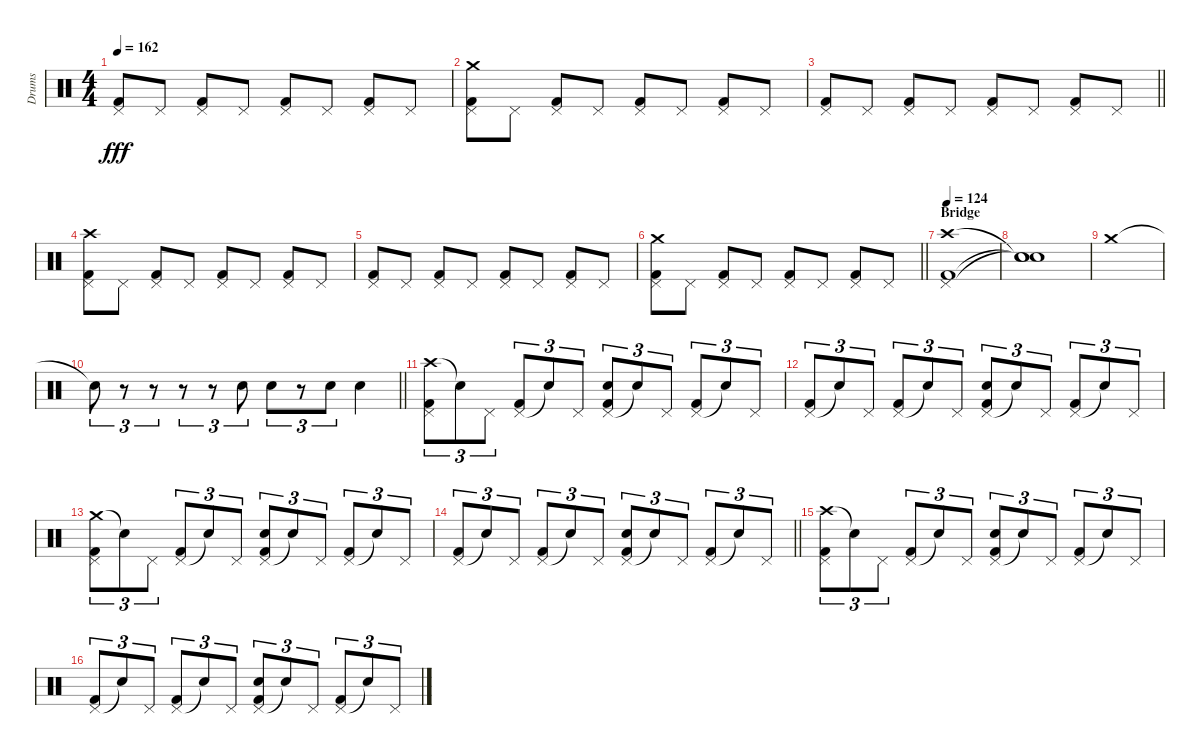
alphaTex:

\track ("Drums" "Drums") {instrument percussion}
\staff {score}
\articulation defaults
\ts (4 4)
\tempo 162
\clef neutral
\ks c
("Pedal Hi-Hat (hit)" "Kick (hit) 2").8{dy fff} "Pedal Hi-Hat (hit)".8 ("Pedal Hi-Hat (hit)" "Kick (hit) 2").8 "Pedal Hi-Hat (hit)".8 ("Pedal Hi-Hat (hit)" "Kick (hit) 2").8 "Pedal Hi-Hat (hit)".8 ("Pedal Hi-Hat (hit)" "Kick (hit) 2").8 "Pedal Hi-Hat (hit)".8 |
("Crash medium (hit)" "Pedal Hi-Hat (hit)" "Kick (hit) 2").8 "Pedal Hi-Hat (hit)".8 ("Pedal Hi-Hat (hit)" "Kick (hit) 2").8 "Pedal Hi-Hat (hit)".8 ("Pedal Hi-Hat (hit)" "Kick (hit) 2").8 "Pedal Hi-Hat (hit)".8 ("Pedal Hi-Hat (hit)" "Kick (hit) 2").8 "Pedal Hi-Hat (hit)".8 |
\barLineRight lightlight
("Pedal Hi-Hat (hit)" "Kick (hit) 2").8 "Pedal Hi-Hat (hit)".8 ("Pedal Hi-Hat (hit)" "Kick (hit) 2").8 "Pedal Hi-Hat (hit)".8 ("Pedal Hi-Hat (hit)" "Kick (hit) 2").8 "Pedal Hi-Hat (hit)".8 ("Pedal Hi-Hat (hit)" "Kick (hit) 2").8 "Pedal Hi-Hat (hit)".8 |
("Crash high (hit)" "Pedal Hi-Hat (hit)" "Kick (hit) 2").8 "Pedal Hi-Hat (hit)".8 ("Pedal Hi-Hat (hit)" "Kick (hit) 2").8 "Pedal Hi-Hat (hit)".8 ("Pedal Hi-Hat (hit)" "Kick (hit) 2").8 "Pedal Hi-Hat (hit)".8 ("Pedal Hi-Hat (hit)" "Kick (hit) 2").8 "Pedal Hi-Hat (hit)".8 |
("Pedal Hi-Hat (hit)" "Kick (hit) 2").8 "Pedal Hi-Hat (hit)".8 ("Pedal Hi-Hat (hit)" "Kick (hit) 2").8 "Pedal Hi-Hat (hit)".8 ("Pedal Hi-Hat (hit)" "Kick (hit) 2").8 "Pedal Hi-Hat (hit)".8 ("Pedal Hi-Hat (hit)" "Kick (hit) 2").8 "Pedal Hi-Hat (hit)".8 |
\barLineRight lightlight
("Crash medium (hit)" "Pedal Hi-Hat (hit)" "Kick (hit) 2").8 "Pedal Hi-Hat (hit)".8 ("Pedal Hi-Hat (hit)" "Kick (hit) 2").8 "Pedal Hi-Hat (hit)".8 ("Pedal Hi-Hat (hit)" "Kick (hit) 2").8 "Pedal Hi-Hat (hit)".8 ("Pedal Hi-Hat (hit)" "Kick (hit) 2").8 "Pedal Hi-Hat (hit)".8 |
\section ("" "Bridge")
\tempo 124
("Crash high (hit)" "Pedal Hi-Hat (hit)" "Kick (hit) 2").1{volume 2} |
("Snare (hit)"{t} "Snare (hit)"{t} "Snare (hit)"{t}).1 |
"Crash medium (hit)".1 |
\barLineRight lightlight "Snare (hit)"{t}.8{tu (3 2)}
r.8{tu (3 2)} r.8{tu (3 2)} r.8{tu (3 2)} r.8{tu (3 2)} "Snare (hit) 2".8{tu (3 2) volume 14} "Snare (hit) 2".8{tu (3 2)} r.8{tu (3 2)} "Snare (hit) 2".8{tu (3 2)} "Snare (hit) 2".4 |
("Crash high (hit)" "Pedal Hi-Hat (hit)" "Kick (hit) 2").8{tu (3 2)} "Snare (hit)"{t}.8{tu (3 2)} "Pedal Hi-Hat (hit)".8{tu (3 2)} ("Pedal Hi-Hat (hit)" "Kick (hit) 2").8{tu (3 2)} "Snare (hit)"{t}.8{tu (3 2)} "Pedal Hi-Hat (hit)".8{tu (3 2)} ("Pedal Hi-Hat (hit)" "Snare (hit) 2" "Kick (hit) 2").8{tu (3 2)} "Snare (hit)"{t}.8{tu (3 2)} "Pedal Hi-Hat (hit)".8{tu (3 2)} ("Pedal Hi-Hat (hit)" "Kick (hit) 2").8{tu (3 2)} "Snare (hit)"{t}.8{tu (3 2)} "Pedal Hi-Hat (hit)".8{tu (3 2)} |
("Pedal Hi-Hat (hit)" "Kick (hit) 2").8{tu (3 2)} "Snare (hit)"{t}.8{tu (3 2)} "Pedal Hi-Hat (hit)".8{tu (3 2)} ("Pedal Hi-Hat (hit)" "Kick (hit) 2").8{tu (3 2)} "Snare (hit)"{t}.8{tu (3 2)} "Pedal Hi-Hat (hit)".8{tu (3 2)} ("Pedal Hi-Hat (hit)" "Snare (hit) 2" "Kick (hit) 2").8{tu (3 2)} "Snare (hit)"{t}.8{tu (3 2)} "Pedal Hi-Hat (hit)".8{tu (3 2)} ("Pedal Hi-Hat (hit)" "Kick (hit) 2").8{tu (3 2)} "Snare (hit)"{t}.8{tu (3 2)} "Pedal Hi-Hat (hit)".8{tu (3 2)} |
("Crash medium (hit)" "Pedal Hi-Hat (hit)" "Kick (hit) 2").8{tu (3 2)} "Snare (hit)"{t}.8{tu (3 2)} "Pedal Hi-Hat (hit)".8{tu (3 2)} ("Pedal Hi-Hat (hit)" "Kick (hit) 2").8{tu (3 2)} "Snare (hit)"{t}.8{tu (3 2)} "Pedal Hi-Hat (hit)".8{tu (3 2)} ("Pedal Hi-Hat (hit)" "Snare (hit) 2" "Kick (hit) 2").8{tu (3 2)} "Snare (hit)"{t}.8{tu (3 2)} "Pedal Hi-Hat (hit)".8{tu (3 2)} ("Pedal Hi-Hat (hit)" "Kick (hit) 2").8{tu (3 2)} "Snare (hit)"{t}.8{tu (3 2)} "Pedal Hi-Hat (hit)".8{tu (3 2)} |
\barLineRight lightlight
("Pedal Hi-Hat (hit)" "Kick (hit) 2").8{tu (3 2)} "Snare (hit)"{t}.8{tu (3 2)} "Pedal Hi-Hat (hit)".8{tu (3 2)} ("Pedal Hi-Hat (hit)" "Kick (hit) 2").8{tu (3 2)} "Snare (hit)"{t}.8{tu (3 2)} "Pedal Hi-Hat (hit)".8{tu (3 2)} ("Pedal Hi-Hat (hit)" "Snare (hit) 2" "Kick (hit) 2").8{tu (3 2)} "Snare (hit)"{t}.8{tu (3 2)} "Pedal Hi-Hat (hit)".8{tu (3 2)} ("Pedal Hi-Hat (hit)" "Kick (hit) 2").8{tu (3 2)} "Snare (hit)"{t}.8{tu (3 2)} "Pedal Hi-Hat (hit)".8{tu (3 2)} |
("Crash high (hit)" "Pedal Hi-Hat (hit)" "Kick (hit) 2").8{tu (3 2)} "Snare (hit)"{t}.8{tu (3 2)} "Pedal Hi-Hat (hit)".8{tu (3 2)} ("Pedal Hi-Hat (hit)" "Kick (hit) 2").8{tu (3 2)} "Snare (hit)"{t}.8{tu (3 2)} "Pedal Hi-Hat (hit)".8{tu (3 2)} ("Pedal Hi-Hat (hit)" "Snare (hit) 2" "Kick (hit) 2").8{tu (3 2)} "Snare (hit)"{t}.8{tu (3 2)} "Pedal Hi-Hat (hit)".8{tu (3 2)} ("Pedal Hi-Hat (hit)" "Kick (hit) 2").8{tu (3 2)} "Snare (hit)"{t}.8{tu (3 2)} "Pedal Hi-Hat (hit)".8{tu (3 2)} |
("Pedal Hi-Hat (hit)" "Kick (hit) 2").8{tu (3 2)} "Snare (hit)"{t}.8{tu (3 2)} "Pedal Hi-Hat (hit)".8{tu (3 2)} ("Pedal Hi-Hat (hit)" "Kick (hit) 2").8{tu (3 2)} "Snare (hit)"{t}.8{tu (3 2)} "Pedal Hi-Hat (hit)".8{tu (3 2)} ("Pedal Hi-Hat (hit)" "Snare (hit) 2" "Kick (hit) 2").8{tu (3 2)} "Snare (hit)"{t}.8{tu (3 2)} "Pedal Hi-Hat (hit)".8{tu (3 2)} ("Pedal Hi-Hat (hit)" "Kick (hit) 2").8{tu (3 2)} "Snare (hit)"{t}.8{tu (3 2)} "Pedal Hi-Hat (hit)".8{tu (3 2)}
